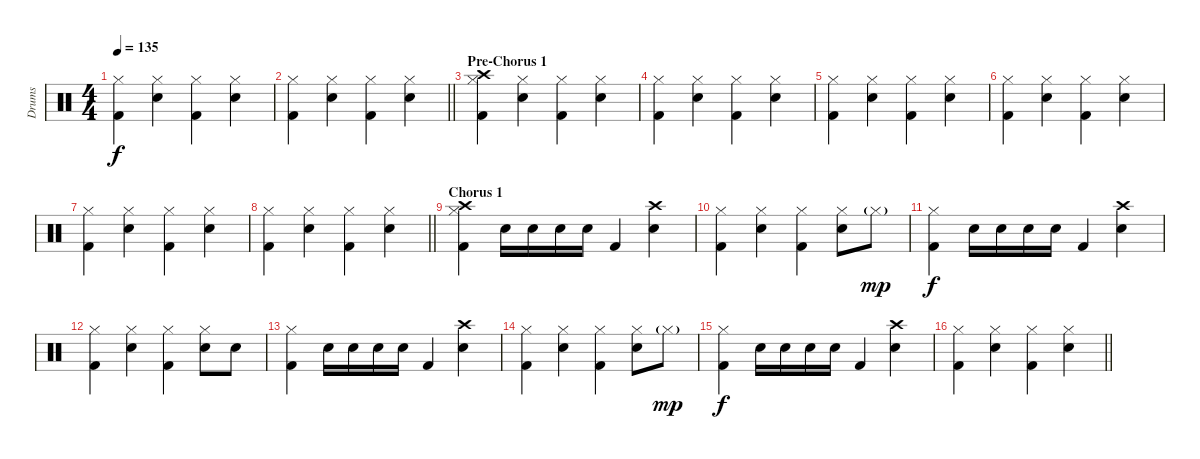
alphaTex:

\track ("Drums" "Drums") {instrument percussion}
\staff {score}
\articulation defaults
\ts (4 4)
\tempo 135
\clef neutral
\ks c
("Hi-Hat (closed)" "Kick (hit) 2").4{dy f} ("Hi-Hat (closed)" "Electric Snare (hit)").4 ("Hi-Hat (closed)" "Kick (hit) 2").4 ("Hi-Hat (closed)" "Electric Snare (hit)").4 |
\barLineRight lightlight
("Hi-Hat (closed)" "Kick (hit) 2").4 ("Hi-Hat (closed)" "Electric Snare (hit)").4 ("Hi-Hat (closed)" "Kick (hit) 2").4 ("Hi-Hat (closed)" "Electric Snare (hit)").4 |
\section ("" "Pre-Chorus 1")
("Hi-Hat (closed)" "Crash high (hit)" "Kick (hit) 2").4 ("Hi-Hat (closed)" "Electric Snare (hit)").4 ("Hi-Hat (closed)" "Kick (hit) 2").4 ("Hi-Hat (closed)" "Electric Snare (hit)").4 |
("Hi-Hat (closed)" "Kick (hit) 2").4 ("Hi-Hat (closed)" "Electric Snare (hit)").4 ("Hi-Hat (closed)" "Kick (hit) 2").4 ("Hi-Hat (closed)" "Electric Snare (hit)").4 |
("Hi-Hat (closed)" "Kick (hit) 2").4 ("Hi-Hat (closed)" "Electric Snare (hit)").4 ("Hi-Hat (closed)" "Kick (hit) 2").4 ("Hi-Hat (closed)" "Electric Snare (hit)").4 |
("Hi-Hat (closed)" "Kick (hit) 2").4 ("Hi-Hat (closed)" "Electric Snare (hit)").4 ("Hi-Hat (closed)" "Kick (hit) 2").4 ("Hi-Hat (closed)" "Electric Snare (hit)").4 |
("Hi-Hat (closed)" "Kick (hit) 2").4 ("Hi-Hat (closed)" "Electric Snare (hit)").4 ("Hi-Hat (closed)" "Kick (hit) 2").4 ("Hi-Hat (closed)" "Electric Snare (hit)").4 |
\barLineRight lightlight
("Hi-Hat (closed)" "Kick (hit) 2").4 ("Hi-Hat (closed)" "Electric Snare (hit)").4 ("Hi-Hat (closed)" "Kick (hit) 2").4 ("Hi-Hat (closed)" "Electric Snare (hit)").4 |
\section ("" "Chorus 1")
("Hi-Hat (closed)" "Crash high (hit)" "Kick (hit) 2").4 "Electric Snare (hit)".16 "Electric Snare (hit)".16 "Electric Snare (hit)".16 "Electric Snare (hit)".16 "Kick (hit) 2".4 ("Crash high (hit)" "Electric Snare (hit)").4 |
("Hi-Hat (closed)" "Kick (hit) 2").4 ("Hi-Hat (closed)" "Electric Snare (hit)").4 ("Hi-Hat (closed)" "Kick (hit) 2").4 ("Hi-Hat (closed)" "Electric Snare (hit)").8 "Hi-Hat (closed)"{g}.8{dy mp} |
("Hi-Hat (closed)" "Kick (hit) 2").4{dy f} "Electric Snare (hit)".16 "Electric Snare (hit)".16 "Electric Snare (hit)".16 "Electric Snare (hit)".16 "Kick (hit) 2".4 ("Crash high (hit)" "Electric Snare (hit)").4 |
("Hi-Hat (closed)" "Kick (hit) 2").4 ("Hi-Hat (closed)" "Electric Snare (hit)").4 ("Hi-Hat (closed)" "Kick (hit) 2").4 ("Hi-Hat (closed)" "Electric Snare (hit)").8 "Snare (hit)".8 |
("Hi-Hat (closed)" "Kick (hit) 2").4 "Electric Snare (hit)".16 "Electric Snare (hit)".16 "Electric Snare (hit)".16 "Electric Snare (hit)".16 "Kick (hit) 2".4 ("Crash high (hit)" "Electric Snare (hit)").4 |
("Hi-Hat (closed)" "Kick (hit) 2").4 ("Hi-Hat (closed)" "Electric Snare (hit)").4 ("Hi-Hat (closed)" "Kick (hit) 2").4 ("Hi-Hat (closed)" "Electric Snare (hit)").8 "Hi-Hat (closed)"{g}.8{dy mp} |
("Hi-Hat (closed)" "Kick (hit) 2").4{dy f} "Electric Snare (hit)".16 "Electric Snare (hit)".16 "Electric Snare (hit)".16 "Electric Snare (hit)".16 "Kick (hit) 2".4 ("Crash high (hit)" "Electric Snare (hit)").4 |
\barLineRight lightlight
("Hi-Hat (closed)" "Kick (hit) 2").4 ("Hi-Hat (closed)" "Electric Snare (hit)").4 ("Hi-Hat (closed)" "Kick (hit) 2").4 ("Hi-Hat (closed)" "Electric Snare (hit)").4
